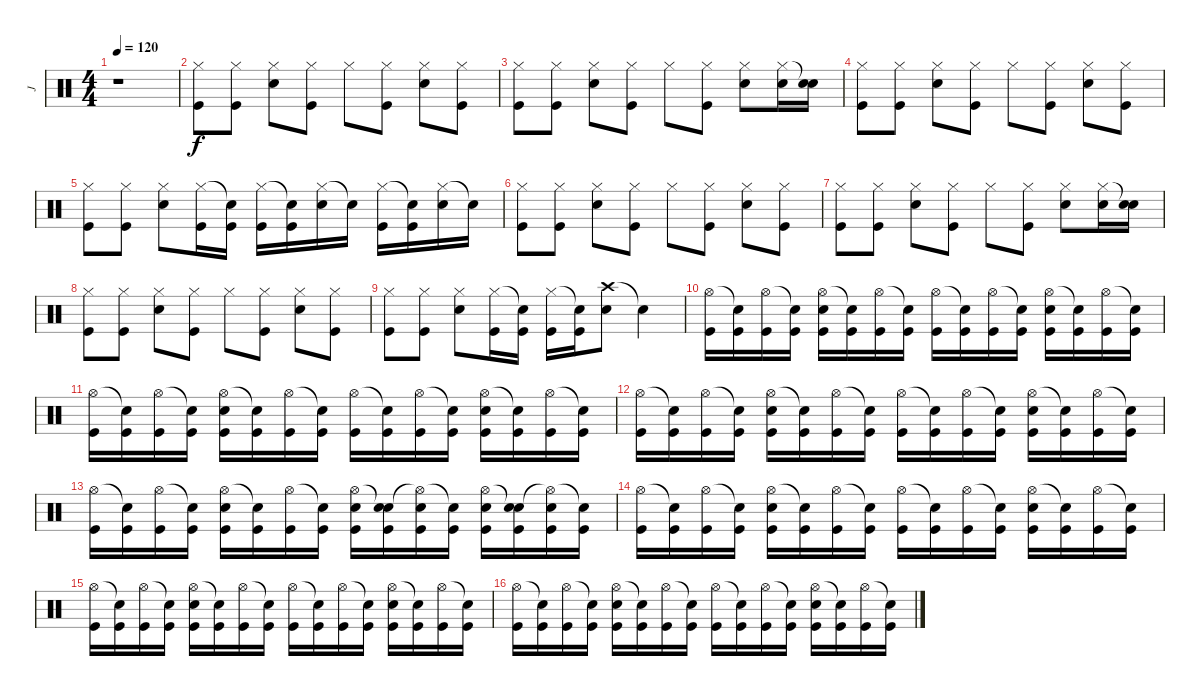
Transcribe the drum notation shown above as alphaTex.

\track ("J" "J") {instrument percussion}
\staff {score}
\articulation defaults
\ts (4 4)
\tempo 120
\clef neutral
\ks c
r.1{dy f} |
("Hi-Hat (closed)" "Kick (hit)").8 ("Hi-Hat (closed)" "Kick (hit)").8 ("Hi-Hat (closed)" "Electric Snare (hit)").8 ("Hi-Hat (closed)" "Kick (hit)").8 "Hi-Hat (closed)".8 ("Hi-Hat (closed)" "Kick (hit)").8 ("Hi-Hat (closed)" "Electric Snare (hit)").8 ("Hi-Hat (closed)" "Kick (hit)").8 |
("Hi-Hat (closed)" "Kick (hit)").8 ("Hi-Hat (closed)" "Kick (hit)").8 ("Hi-Hat (closed)" "Electric Snare (hit)").8 ("Hi-Hat (closed)" "Kick (hit)").8 "Hi-Hat (closed)".8 ("Hi-Hat (closed)" "Kick (hit)").8 ("Hi-Hat (closed)" "Electric Snare (hit)").8 ("Hi-Hat (closed)" "Electric Snare (hit)").16 ("Snare (hit)"{t} "Electric Snare (hit)").16 |
("Hi-Hat (closed)" "Kick (hit)").8 ("Hi-Hat (closed)" "Kick (hit)").8 ("Hi-Hat (closed)" "Electric Snare (hit)").8 ("Hi-Hat (closed)" "Kick (hit)").8 "Hi-Hat (closed)".8 ("Hi-Hat (closed)" "Kick (hit)").8 ("Hi-Hat (closed)" "Electric Snare (hit)").8 ("Hi-Hat (closed)" "Kick (hit)").8 |
("Hi-Hat (closed)" "Kick (hit)").8 ("Hi-Hat (closed)" "Kick (hit)").8 ("Hi-Hat (closed)" "Electric Snare (hit)").8 ("Hi-Hat (closed)" "Kick (hit)").16 ("Snare (hit)"{t} "Kick (hit)").16 ("Hi-Hat (closed)" "Kick (hit)").16 ("Snare (hit)"{t} "Kick (hit)").16 ("Hi-Hat (closed)" "Electric Snare (hit)").16 "Snare (hit)"{t}.16 ("Hi-Hat (closed)" "Kick (hit)").16 ("Snare (hit)"{t} "Kick (hit)").16 ("Hi-Hat (closed)" "Electric Snare (hit)").16 "Snare (hit)"{t}.16 |
("Hi-Hat (closed)" "Kick (hit)").8 ("Hi-Hat (closed)" "Kick (hit)").8 ("Hi-Hat (closed)" "Electric Snare (hit)").8 ("Hi-Hat (closed)" "Kick (hit)").8 "Hi-Hat (closed)".8 ("Hi-Hat (closed)" "Kick (hit)").8 ("Hi-Hat (closed)" "Electric Snare (hit)").8 ("Hi-Hat (closed)" "Kick (hit)").8 |
("Hi-Hat (closed)" "Kick (hit)").8 ("Hi-Hat (closed)" "Kick (hit)").8 ("Hi-Hat (closed)" "Electric Snare (hit)").8 ("Hi-Hat (closed)" "Kick (hit)").8 "Hi-Hat (closed)".8 ("Hi-Hat (closed)" "Kick (hit)").8 ("Hi-Hat (closed)" "Electric Snare (hit)").8 ("Hi-Hat (closed)" "Electric Snare (hit)").16 ("Snare (hit)"{t} "Electric Snare (hit)").16 |
("Hi-Hat (closed)" "Kick (hit)").8 ("Hi-Hat (closed)" "Kick (hit)").8 ("Hi-Hat (closed)" "Electric Snare (hit)").8 ("Hi-Hat (closed)" "Kick (hit)").8 "Hi-Hat (closed)".8 ("Hi-Hat (closed)" "Kick (hit)").8 ("Hi-Hat (closed)" "Electric Snare (hit)").8 ("Hi-Hat (closed)" "Kick (hit)").8 |
("Hi-Hat (closed)" "Kick (hit)").8 ("Hi-Hat (closed)" "Kick (hit)").8 ("Hi-Hat (closed)" "Electric Snare (hit)").8 ("Hi-Hat (closed)" "Kick (hit)").16 ("Snare (hit)"{t} "Kick (hit)").16 ("Hi-Hat (closed)" "Kick (hit)").16 ("Snare (hit)"{t} "Kick (hit)").16 ("Crash high (hit)" "Electric Snare (hit)").8 "Snare (hit)"{t}.4 |
("Hi-Hat (open)" "Kick (hit)").16 ("Snare (hit)"{t} "Kick (hit)").16 ("Hi-Hat (open)" "Kick (hit)").16 ("Snare (hit)"{t} "Kick (hit)").16 ("Hi-Hat (open)" "Electric Snare (hit)" "Kick (hit)").16 ("Snare (hit)"{t} "Kick (hit)").16 ("Hi-Hat (open)" "Kick (hit)").16 ("Snare (hit)"{t} "Kick (hit)").16 ("Hi-Hat (open)" "Kick (hit)").16 ("Snare (hit)"{t} "Kick (hit)").16 ("Hi-Hat (open)" "Kick (hit)").16 ("Snare (hit)"{t} "Kick (hit)").16 ("Hi-Hat (open)" "Electric Snare (hit)" "Kick (hit)").16 ("Snare (hit)"{t} "Kick (hit)").16 ("Hi-Hat (open)" "Kick (hit)").16 ("Snare (hit)"{t} "Kick (hit)").16 |
("Hi-Hat (open)" "Kick (hit)").16 ("Snare (hit)"{t} "Kick (hit)").16 ("Hi-Hat (open)" "Kick (hit)").16 ("Snare (hit)"{t} "Kick (hit)").16 ("Hi-Hat (open)" "Electric Snare (hit)" "Kick (hit)").16 ("Snare (hit)"{t} "Kick (hit)").16 ("Hi-Hat (open)" "Kick (hit)").16 ("Snare (hit)"{t} "Kick (hit)").16 ("Hi-Hat (open)" "Kick (hit)").16 ("Snare (hit)"{t} "Kick (hit)").16 ("Hi-Hat (open)" "Kick (hit)").16 ("Snare (hit)"{t} "Kick (hit)").16 ("Hi-Hat (open)" "Electric Snare (hit)" "Kick (hit)").16 ("Snare (hit)"{t} "Kick (hit)").16 ("Hi-Hat (open)" "Kick (hit)").16 ("Snare (hit)"{t} "Kick (hit)").16 |
("Hi-Hat (open)" "Kick (hit)").16 ("Snare (hit)"{t} "Kick (hit)").16 ("Hi-Hat (open)" "Kick (hit)").16 ("Snare (hit)"{t} "Kick (hit)").16 ("Hi-Hat (open)" "Electric Snare (hit)" "Kick (hit)").16 ("Snare (hit)"{t} "Kick (hit)").16 ("Hi-Hat (open)" "Kick (hit)").16 ("Snare (hit)"{t} "Kick (hit)").16 ("Hi-Hat (open)" "Kick (hit)").16 ("Snare (hit)"{t} "Kick (hit)").16 ("Hi-Hat (open)" "Kick (hit)").16 ("Snare (hit)"{t} "Kick (hit)").16 ("Hi-Hat (open)" "Electric Snare (hit)" "Kick (hit)").16 ("Snare (hit)"{t} "Kick (hit)").16 ("Hi-Hat (open)" "Kick (hit)").16 ("Snare (hit)"{t} "Kick (hit)").16 |
("Hi-Hat (open)" "Kick (hit)").16 ("Snare (hit)"{t} "Kick (hit)").16 ("Hi-Hat (open)" "Kick (hit)").16 ("Snare (hit)"{t} "Kick (hit)").16 ("Hi-Hat (open)" "Electric Snare (hit)" "Kick (hit)").16 ("Snare (hit)"{t} "Kick (hit)").16 ("Hi-Hat (open)" "Kick (hit)").16 ("Snare (hit)"{t} "Kick (hit)").16 ("Hi-Hat (open)" "Electric Snare (hit)" "Kick (hit)").16 ("Snare (hit)"{t} "Electric Snare (hit)" "Kick (hit)").16 ("Hi-Hat (open)"{t} "Electric Snare (hit)" "Kick (hit)").16 ("Snare (hit)"{t} "Kick (hit)").16 ("Hi-Hat (open)" "Electric Snare (hit)" "Kick (hit)").16 ("Snare (hit)"{t} "Electric Snare (hit)" "Kick (hit)").16 ("Hi-Hat (open)"{t} "Electric Snare (hit)" "Kick (hit)").16 ("Snare (hit)"{t} "Kick (hit)").16 |
("Hi-Hat (open)" "Kick (hit)").16 ("Snare (hit)"{t} "Kick (hit)").16 ("Hi-Hat (open)" "Kick (hit)").16 ("Snare (hit)"{t} "Kick (hit)").16 ("Hi-Hat (open)" "Electric Snare (hit)" "Kick (hit)").16 ("Snare (hit)"{t} "Kick (hit)").16 ("Hi-Hat (open)" "Kick (hit)").16 ("Snare (hit)"{t} "Kick (hit)").16 ("Hi-Hat (open)" "Kick (hit)").16 ("Snare (hit)"{t} "Kick (hit)").16 ("Hi-Hat (open)" "Kick (hit)").16 ("Snare (hit)"{t} "Kick (hit)").16 ("Hi-Hat (open)" "Electric Snare (hit)" "Kick (hit)").16 ("Snare (hit)"{t} "Kick (hit)").16 ("Hi-Hat (open)" "Kick (hit)").16 ("Snare (hit)"{t} "Kick (hit)").16 |
("Hi-Hat (open)" "Kick (hit)").16 ("Snare (hit)"{t} "Kick (hit)").16 ("Hi-Hat (open)" "Kick (hit)").16 ("Snare (hit)"{t} "Kick (hit)").16 ("Hi-Hat (open)" "Electric Snare (hit)" "Kick (hit)").16 ("Snare (hit)"{t} "Kick (hit)").16 ("Hi-Hat (open)" "Kick (hit)").16 ("Snare (hit)"{t} "Kick (hit)").16 ("Hi-Hat (open)" "Kick (hit)").16 ("Snare (hit)"{t} "Kick (hit)").16 ("Hi-Hat (open)" "Kick (hit)").16 ("Snare (hit)"{t} "Kick (hit)").16 ("Hi-Hat (open)" "Electric Snare (hit)" "Kick (hit)").16 ("Snare (hit)"{t} "Kick (hit)").16 ("Hi-Hat (open)" "Kick (hit)").16 ("Snare (hit)"{t} "Kick (hit)").16 |
("Hi-Hat (open)" "Kick (hit)").16 ("Snare (hit)"{t} "Kick (hit)").16 ("Hi-Hat (open)" "Kick (hit)").16 ("Snare (hit)"{t} "Kick (hit)").16 ("Hi-Hat (open)" "Electric Snare (hit)" "Kick (hit)").16 ("Snare (hit)"{t} "Kick (hit)").16 ("Hi-Hat (open)" "Kick (hit)").16 ("Snare (hit)"{t} "Kick (hit)").16 ("Hi-Hat (open)" "Kick (hit)").16 ("Snare (hit)"{t} "Kick (hit)").16 ("Hi-Hat (open)" "Kick (hit)").16 ("Snare (hit)"{t} "Kick (hit)").16 ("Hi-Hat (open)" "Electric Snare (hit)" "Kick (hit)").16 ("Snare (hit)"{t} "Kick (hit)").16 ("Hi-Hat (open)" "Kick (hit)").16 ("Snare (hit)"{t} "Kick (hit)").16
